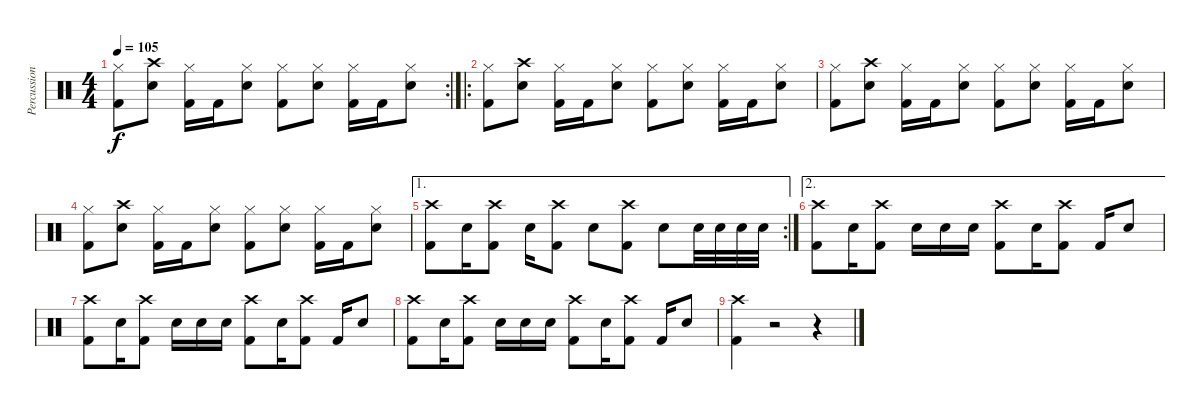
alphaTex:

\track ("Percussion" "Percussion") {instrument percussion}
\staff {score}
\articulation defaults
\rc 2
\ts (4 4)
\tempo 105
\clef neutral
\ks c
("Hi-Hat (closed)" "Kick (hit) 2").8{dy f} ("Crash high (hit)" "Snare (hit) 2").8 ("Hi-Hat (closed)" "Kick (hit) 2").16 "Kick (hit) 2".16 ("Hi-Hat (closed)" "Snare (hit) 2").8 ("Hi-Hat (closed)" "Kick (hit) 2").8 ("Hi-Hat (closed)" "Snare (hit) 2").8 ("Hi-Hat (closed)" "Kick (hit) 2").16 "Kick (hit) 2".16 ("Hi-Hat (closed)" "Snare (hit) 2").8 |
\ro
("Hi-Hat (closed)" "Kick (hit) 2").8 ("Crash high (hit)" "Snare (hit) 2").8 ("Hi-Hat (closed)" "Kick (hit) 2").16 "Kick (hit) 2".16 ("Hi-Hat (closed)" "Snare (hit) 2").8 ("Hi-Hat (closed)" "Kick (hit) 2").8 ("Hi-Hat (closed)" "Snare (hit) 2").8 ("Hi-Hat (closed)" "Kick (hit) 2").16 "Kick (hit) 2".16 ("Hi-Hat (closed)" "Snare (hit) 2").8 |
("Hi-Hat (closed)" "Kick (hit) 2").8 ("Crash high (hit)" "Snare (hit) 2").8 ("Hi-Hat (closed)" "Kick (hit) 2").16 "Kick (hit) 2".16 ("Hi-Hat (closed)" "Snare (hit) 2").8 ("Hi-Hat (closed)" "Kick (hit) 2").8 ("Hi-Hat (closed)" "Snare (hit) 2").8 ("Hi-Hat (closed)" "Kick (hit) 2").16 "Kick (hit) 2".16 ("Hi-Hat (closed)" "Snare (hit) 2").8 |
("Hi-Hat (closed)" "Kick (hit) 2").8 ("Crash high (hit)" "Snare (hit) 2").8 ("Hi-Hat (closed)" "Kick (hit) 2").16 "Kick (hit) 2".16 ("Hi-Hat (closed)" "Snare (hit) 2").8 ("Hi-Hat (closed)" "Kick (hit) 2").8 ("Hi-Hat (closed)" "Snare (hit) 2").8 ("Hi-Hat (closed)" "Kick (hit) 2").16 "Kick (hit) 2".16 ("Hi-Hat (closed)" "Snare (hit) 2").8 |
\ae 1
\rc 2
("Crash high (hit)" "Kick (hit) 2").8 "Snare (hit) 2".16 ("Crash high (hit)" "Kick (hit) 2").8 "Snare (hit) 2".16 ("Crash high (hit)" "Kick (hit) 2").8 "Snare (hit) 2".8 ("Crash high (hit)" "Kick (hit) 2").8 "Snare (hit) 2".8 "Snare (hit) 2".32 "Snare (hit) 2".32 "Snare (hit) 2".32 "Snare (hit) 2".32 |
\ae 2
("Crash high (hit)" "Kick (hit) 2").8 "Snare (hit) 2".16 ("Crash high (hit)" "Kick (hit) 2").8 "Snare (hit) 2".16 "Snare (hit) 2".16 "Snare (hit) 2".16 ("Crash high (hit)" "Kick (hit) 2").8 "Snare (hit) 2".16 ("Crash high (hit)" "Kick (hit) 2").8 "Kick (hit) 2".16 "Snare (hit) 2".8 |
("Crash high (hit)" "Kick (hit) 2").8 "Snare (hit) 2".16 ("Crash high (hit)" "Kick (hit) 2").8 "Snare (hit) 2".16 "Snare (hit) 2".16 "Snare (hit) 2".16 ("Crash high (hit)" "Kick (hit) 2").8 "Snare (hit) 2".16 ("Crash high (hit)" "Kick (hit) 2").8 "Kick (hit) 2".16 "Snare (hit) 2".8 |
("Crash high (hit)" "Kick (hit) 2").8 "Snare (hit) 2".16 ("Crash high (hit)" "Kick (hit) 2").8 "Snare (hit) 2".16 "Snare (hit) 2".16 "Snare (hit) 2".16 ("Crash high (hit)" "Kick (hit) 2").8 "Snare (hit) 2".16 ("Crash high (hit)" "Kick (hit) 2").8 "Kick (hit) 2".16 "Snare (hit) 2".8 |
("Crash high (hit)" "Kick (hit) 2").4 r.2 r.4
